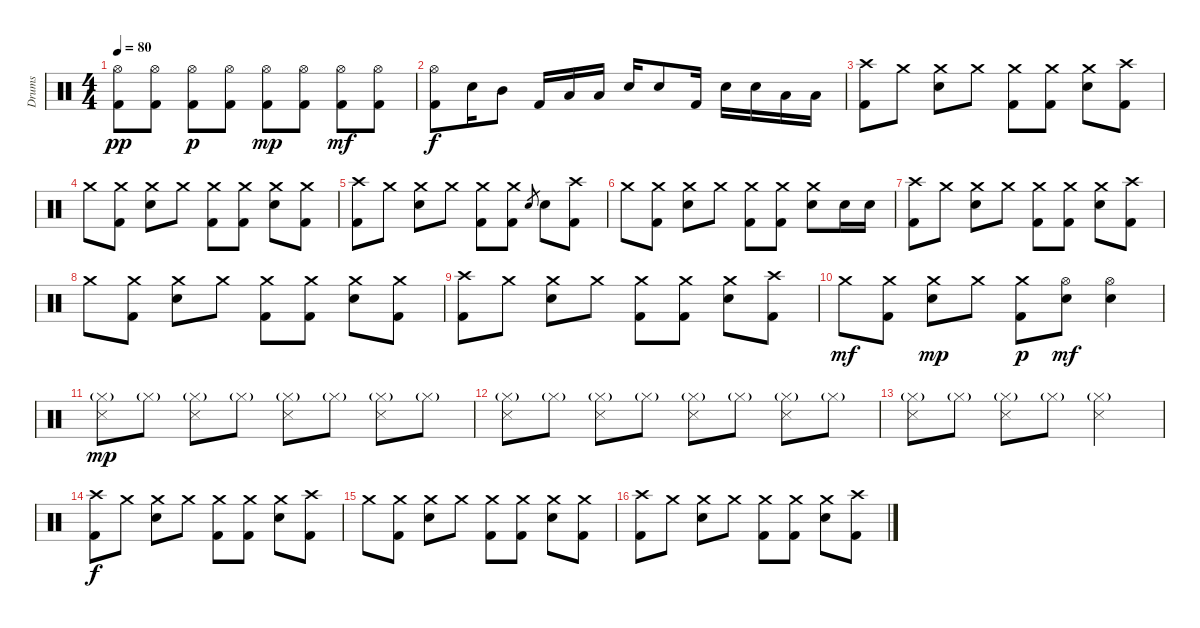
\track ("Drums" "Drums") {instrument percussion}
\staff {score}
\articulation defaults
\ts (4 4)
\tempo 80
\clef neutral
\ks c
("Hi-Hat (open)" "Kick (hit) 2").8{dy pp} ("Hi-Hat (open)" "Kick (hit) 2").8 ("Hi-Hat (open)" "Kick (hit) 2").8{dy p} ("Hi-Hat (open)" "Kick (hit) 2").8 ("Hi-Hat (open)" "Kick (hit) 2").8{dy mp} ("Hi-Hat (open)" "Kick (hit) 2").8 ("Hi-Hat (open)" "Kick (hit) 2").8{dy mf} ("Hi-Hat (open)" "Kick (hit) 2").8 |
("Hi-Hat (open)" "Kick (hit) 2").8{dy f} "Snare (hit) 2".16 "Mid Tom (hit)".8 "Kick (hit) 2".16 "Low Tom (hit)".16 "Low Tom (hit)".16 "Snare (hit) 2".16 "Snare (hit) 2".8 "Kick (hit) 2".16 "Snare (hit) 2".16 "Snare (hit) 2".16 "Low Tom (hit)".16 "Low Tom (hit)".16 |
("Crash high (hit)" "Kick (hit) 2").8 "Crash medium (hit)".8 ("Crash medium (hit)" "Snare (hit) 2").8 "Crash medium (hit)".8 ("Crash medium (hit)" "Kick (hit) 2").8 ("Crash medium (hit)" "Kick (hit) 2").8 ("Crash medium (hit)" "Snare (hit) 2").8 ("Crash high (hit)" "Kick (hit) 2").8 |
"Crash medium (hit)".8 ("Crash medium (hit)" "Kick (hit) 2").8 ("Crash medium (hit)" "Snare (hit) 2").8 "Crash medium (hit)".8 ("Crash medium (hit)" "Kick (hit) 2").8 ("Crash medium (hit)" "Kick (hit) 2").8 ("Crash medium (hit)" "Snare (hit) 2").8 ("Crash medium (hit)" "Kick (hit) 2").8 |
("Crash high (hit)" "Kick (hit) 2").8 "Crash medium (hit)".8 ("Crash medium (hit)" "Snare (hit) 2").8 "Crash medium (hit)".8 ("Crash medium (hit)" "Kick (hit) 2").8 ("Crash medium (hit)" "Kick (hit) 2").8 "Snare (hit) 2".8{gr} "Snare (hit) 2".8 ("Crash high (hit)" "Kick (hit) 2").8 |
"Crash medium (hit)".8 ("Crash medium (hit)" "Kick (hit) 2").8 ("Crash medium (hit)" "Snare (hit) 2").8 "Crash medium (hit)".8 ("Crash medium (hit)" "Kick (hit) 2").8 ("Crash medium (hit)" "Kick (hit) 2").8 ("Crash medium (hit)" "Snare (hit) 2").8 "Snare (hit) 2".16 "Snare (hit) 2".16 |
("Crash high (hit)" "Kick (hit) 2").8 "Crash medium (hit)".8 ("Crash medium (hit)" "Snare (hit) 2").8 "Crash medium (hit)".8 ("Crash medium (hit)" "Kick (hit) 2").8 ("Crash medium (hit)" "Kick (hit) 2").8 ("Crash medium (hit)" "Snare (hit) 2").8 ("Crash high (hit)" "Kick (hit) 2").8 |
"Crash medium (hit)".8 ("Crash medium (hit)" "Kick (hit) 2").8 ("Crash medium (hit)" "Snare (hit) 2").8 "Crash medium (hit)".8 ("Crash medium (hit)" "Kick (hit) 2").8 ("Crash medium (hit)" "Kick (hit) 2").8 ("Crash medium (hit)" "Snare (hit) 2").8 ("Crash medium (hit)" "Kick (hit) 2").8 |
("Crash high (hit)" "Kick (hit) 2").8 "Crash medium (hit)".8 ("Crash medium (hit)" "Snare (hit) 2").8 "Crash medium (hit)".8 ("Crash medium (hit)" "Kick (hit) 2").8 ("Crash medium (hit)" "Kick (hit) 2").8 ("Crash medium (hit)" "Snare (hit) 2").8 ("Crash high (hit)" "Kick (hit) 2").8 |
"Crash medium (hit)".8{dy mf} ("Crash medium (hit)" "Kick (hit) 2").8 ("Crash medium (hit)" "Snare (hit) 2").8{dy mp} "Crash medium (hit)".8 ("Crash medium (hit)" "Kick (hit) 2").8{dy p} ("Hi-Hat (open)" "Snare (hit) 2").8{dy mf} ("Hi-Hat (open)" "Snare (hit) 2").4 |
("Hi-Hat (closed)"{g} "Snare (side stick) 3").8{dy mp} "Hi-Hat (closed)"{g}.8 ("Hi-Hat (closed)"{g} "Snare (side stick) 3").8 "Hi-Hat (closed)"{g}.8 ("Hi-Hat (closed)"{g} "Snare (side stick) 3").8 "Hi-Hat (closed)"{g}.8 ("Hi-Hat (closed)"{g} "Snare (side stick) 3").8 "Hi-Hat (closed)"{g}.8 |
("Hi-Hat (closed)"{g} "Snare (side stick) 3").8 "Hi-Hat (closed)"{g}.8 ("Hi-Hat (closed)"{g} "Snare (side stick) 3").8 "Hi-Hat (closed)"{g}.8 ("Hi-Hat (closed)"{g} "Snare (side stick) 3").8 "Hi-Hat (closed)"{g}.8 ("Hi-Hat (closed)"{g} "Snare (side stick) 3").8 "Hi-Hat (closed)"{g}.8 |
("Hi-Hat (closed)"{g} "Snare (side stick) 3").8 "Hi-Hat (closed)"{g}.8 ("Hi-Hat (closed)"{g} "Snare (side stick) 3").8 "Hi-Hat (closed)"{g}.8 ("Hi-Hat (closed)"{g} "Snare (side stick) 3").2 |
("Crash high (hit)" "Kick (hit) 2").8{dy f} "Crash medium (hit)".8 ("Crash medium (hit)" "Snare (hit) 2").8 "Crash medium (hit)".8 ("Crash medium (hit)" "Kick (hit) 2").8 ("Crash medium (hit)" "Kick (hit) 2").8 ("Crash medium (hit)" "Snare (hit) 2").8 ("Crash high (hit)" "Kick (hit) 2").8 |
"Crash medium (hit)".8 ("Crash medium (hit)" "Kick (hit) 2").8 ("Crash medium (hit)" "Snare (hit) 2").8 "Crash medium (hit)".8 ("Crash medium (hit)" "Kick (hit) 2").8 ("Crash medium (hit)" "Kick (hit) 2").8 ("Crash medium (hit)" "Snare (hit) 2").8 ("Crash medium (hit)" "Kick (hit) 2").8 |
("Crash high (hit)" "Kick (hit) 2").8 "Crash medium (hit)".8 ("Crash medium (hit)" "Snare (hit) 2").8 "Crash medium (hit)".8 ("Crash medium (hit)" "Kick (hit) 2").8 ("Crash medium (hit)" "Kick (hit) 2").8 ("Crash medium (hit)" "Snare (hit) 2").8 ("Crash high (hit)" "Kick (hit) 2").8
